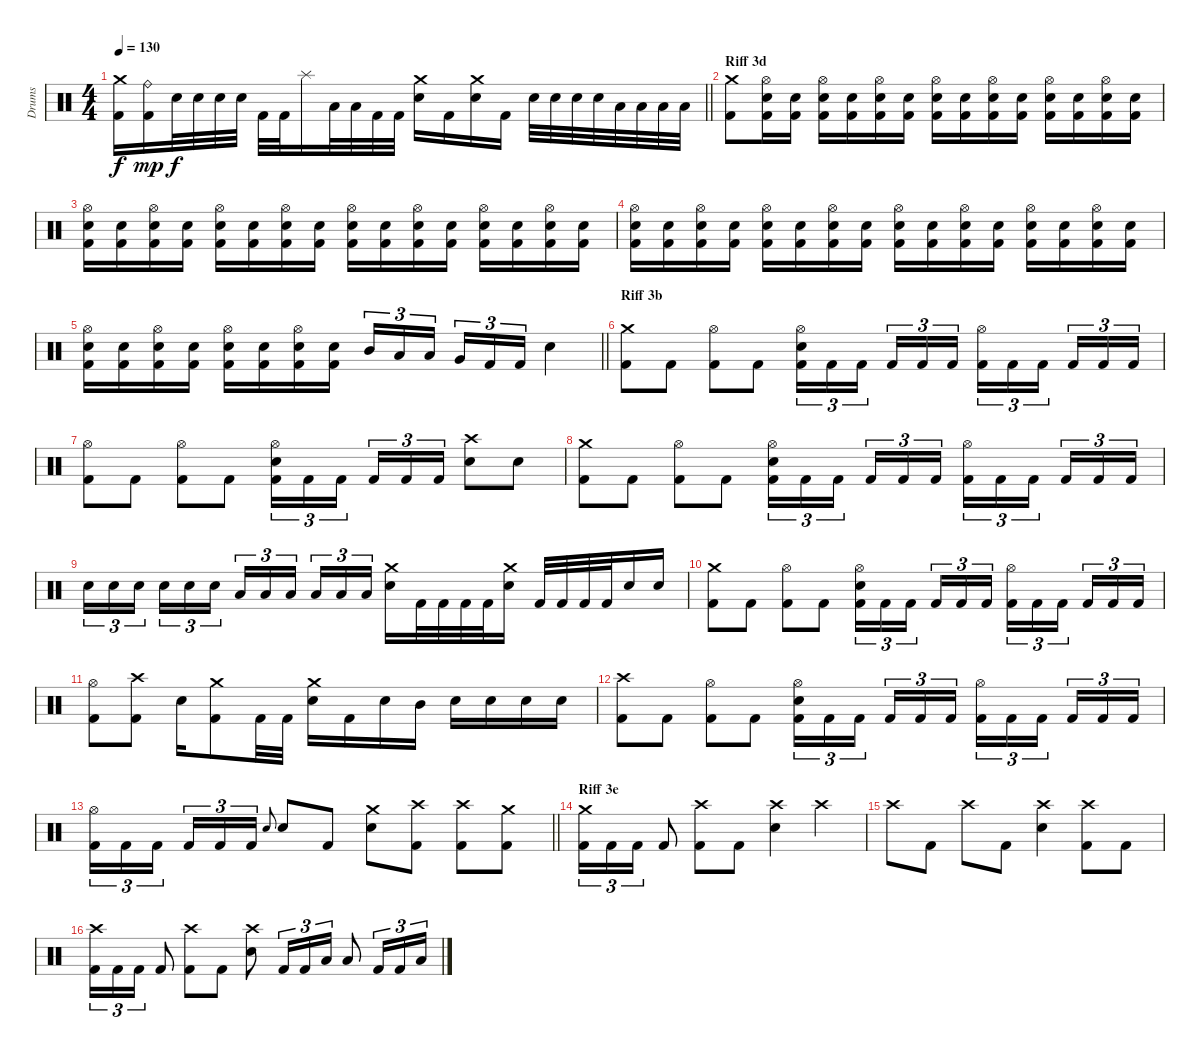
\track ("Drums" "Drums") {instrument percussion}
\staff {score}
\articulation defaults
\ts (4 4)
\tempo 130
\clef neutral
\barLineRight lightlight
\ks c
("Crash medium (hit)" "Kick (hit) 2").16{dy f} ("Ride (bell)" "Kick (hit) 2").16{dy mp} "Electric Snare (hit)".32{dy f} "Electric Snare (hit)".32 "Electric Snare (hit)".32 "Electric Snare (hit)".32 "Kick (hit) 2".32 "Kick (hit) 2".32 "Splash (hit)".16 "Low Tom (hit)".32 "Low Tom (hit)".32 "Kick (hit) 2".32 "Kick (hit) 2".32 ("Electric Snare (hit)" "Crash medium (hit)").16 "Kick (hit) 2".16 ("Electric Snare (hit)" "Crash medium (hit)").16 "Kick (hit) 2".16 "Electric Snare (hit)".32 "Electric Snare (hit)".32 "Electric Snare (hit)".32 "Electric Snare (hit)".32 "Low Tom (hit)".32 "Low Tom (hit)".32 "Low Tom (hit)".32 "Low Tom (hit)".32 |
\section ("" "Riff 3d")
("Kick (hit) 2" "Crash medium (hit)").8 ("Electric Snare (hit)" "Hi-Hat (open)" "Kick (hit) 2").16 ("Electric Snare (hit)" "Kick (hit) 2").16 ("Electric Snare (hit)" "Hi-Hat (open)" "Kick (hit) 2").16 ("Electric Snare (hit)" "Kick (hit) 2").16 ("Electric Snare (hit)" "Hi-Hat (open)" "Kick (hit) 2").16 ("Electric Snare (hit)" "Kick (hit) 2").16 ("Electric Snare (hit)" "Hi-Hat (open)" "Kick (hit) 2").16 ("Electric Snare (hit)" "Kick (hit) 2").16 ("Electric Snare (hit)" "Hi-Hat (open)" "Kick (hit) 2").16 ("Electric Snare (hit)" "Kick (hit) 2").16 ("Electric Snare (hit)" "Hi-Hat (open)" "Kick (hit) 2").16 ("Electric Snare (hit)" "Kick (hit) 2").16 ("Electric Snare (hit)" "Hi-Hat (open)" "Kick (hit) 2").16 ("Electric Snare (hit)" "Kick (hit) 2").16 |
("Electric Snare (hit)" "Hi-Hat (open)" "Kick (hit) 2").16 ("Electric Snare (hit)" "Kick (hit) 2").16 ("Electric Snare (hit)" "Hi-Hat (open)" "Kick (hit) 2").16 ("Electric Snare (hit)" "Kick (hit) 2").16 ("Electric Snare (hit)" "Hi-Hat (open)" "Kick (hit) 2").16 ("Electric Snare (hit)" "Kick (hit) 2").16 ("Electric Snare (hit)" "Hi-Hat (open)" "Kick (hit) 2").16 ("Electric Snare (hit)" "Kick (hit) 2").16 ("Electric Snare (hit)" "Hi-Hat (open)" "Kick (hit) 2").16 ("Electric Snare (hit)" "Kick (hit) 2").16 ("Electric Snare (hit)" "Hi-Hat (open)" "Kick (hit) 2").16 ("Electric Snare (hit)" "Kick (hit) 2").16 ("Electric Snare (hit)" "Hi-Hat (open)" "Kick (hit) 2").16 ("Electric Snare (hit)" "Kick (hit) 2").16 ("Electric Snare (hit)" "Hi-Hat (open)" "Kick (hit) 2").16 ("Electric Snare (hit)" "Kick (hit) 2").16 |
("Electric Snare (hit)" "Hi-Hat (open)" "Kick (hit) 2").16 ("Electric Snare (hit)" "Kick (hit) 2").16 ("Electric Snare (hit)" "Hi-Hat (open)" "Kick (hit) 2").16 ("Electric Snare (hit)" "Kick (hit) 2").16 ("Electric Snare (hit)" "Hi-Hat (open)" "Kick (hit) 2").16 ("Electric Snare (hit)" "Kick (hit) 2").16 ("Electric Snare (hit)" "Hi-Hat (open)" "Kick (hit) 2").16 ("Electric Snare (hit)" "Kick (hit) 2").16 ("Electric Snare (hit)" "Hi-Hat (open)" "Kick (hit) 2").16 ("Electric Snare (hit)" "Kick (hit) 2").16 ("Electric Snare (hit)" "Hi-Hat (open)" "Kick (hit) 2").16 ("Electric Snare (hit)" "Kick (hit) 2").16 ("Electric Snare (hit)" "Hi-Hat (open)" "Kick (hit) 2").16 ("Electric Snare (hit)" "Kick (hit) 2").16 ("Electric Snare (hit)" "Hi-Hat (open)" "Kick (hit) 2").16 ("Electric Snare (hit)" "Kick (hit) 2").16 |
\barLineRight lightlight
("Electric Snare (hit)" "Hi-Hat (open)" "Kick (hit) 2").16 ("Electric Snare (hit)" "Kick (hit) 2").16 ("Electric Snare (hit)" "Hi-Hat (open)" "Kick (hit) 2").16 ("Electric Snare (hit)" "Kick (hit) 2").16 ("Electric Snare (hit)" "Hi-Hat (open)" "Kick (hit) 2").16 ("Electric Snare (hit)" "Kick (hit) 2").16 ("Electric Snare (hit)" "Hi-Hat (open)" "Kick (hit) 2").16 ("Electric Snare (hit)" "Kick (hit) 2").16 "Mid Tom (hit)".16{tu (3 2)} "Low Tom (hit)".16{tu (3 2)} "Low Tom (hit)".16{tu (3 2) beam splitsecondary} "Very Low Tom (hit)".16{tu (3 2)} "Kick (hit) 2".16{tu (3 2)} "Kick (hit) 2".16{tu (3 2)} "Electric Snare (hit)".4 |
\section ("" "Riff 3b")
("Kick (hit) 2" "Crash medium (hit)").8 "Kick (hit) 2".8 ("Kick (hit) 2" "Hi-Hat (open)").8 "Kick (hit) 2".8 ("Kick (hit) 2" "Electric Snare (hit)" "Hi-Hat (open)").16{tu (3 2)} "Kick (hit) 2".16{tu (3 2)} "Kick (hit) 2".16{tu (3 2) beam splitsecondary} "Kick (hit) 2".16{tu (3 2)} "Kick (hit) 2".16{tu (3 2)} "Kick (hit) 2".16{tu (3 2)} ("Kick (hit) 2" "Hi-Hat (open)").16{tu (3 2)} "Kick (hit) 2".16{tu (3 2)} "Kick (hit) 2".16{tu (3 2) beam splitsecondary} "Kick (hit) 2".16{tu (3 2)} "Kick (hit) 2".16{tu (3 2)} "Kick (hit) 2".16{tu (3 2)} |
("Kick (hit) 2" "Hi-Hat (open)").8 "Kick (hit) 2".8 ("Kick (hit) 2" "Hi-Hat (open)").8 "Kick (hit) 2".8 ("Kick (hit) 2" "Electric Snare (hit)" "Hi-Hat (open)").16{tu (3 2)} "Kick (hit) 2".16{tu (3 2)} "Kick (hit) 2".16{tu (3 2) beam splitsecondary} "Kick (hit) 2".16{tu (3 2)} "Kick (hit) 2".16{tu (3 2)} "Kick (hit) 2".16{tu (3 2)} ("Electric Snare (hit)" "Crash high (hit)").8 "Electric Snare (hit)".8 |
("Kick (hit) 2" "Crash medium (hit)").8 "Kick (hit) 2".8 ("Kick (hit) 2" "Hi-Hat (open)").8 "Kick (hit) 2".8 ("Kick (hit) 2" "Electric Snare (hit)" "Hi-Hat (open)").16{tu (3 2)} "Kick (hit) 2".16{tu (3 2)} "Kick (hit) 2".16{tu (3 2) beam splitsecondary} "Kick (hit) 2".16{tu (3 2)} "Kick (hit) 2".16{tu (3 2)} "Kick (hit) 2".16{tu (3 2)} ("Kick (hit) 2" "Hi-Hat (open)").16{tu (3 2)} "Kick (hit) 2".16{tu (3 2)} "Kick (hit) 2".16{tu (3 2) beam splitsecondary} "Kick (hit) 2".16{tu (3 2)} "Kick (hit) 2".16{tu (3 2)} "Kick (hit) 2".16{tu (3 2)} |
"Electric Snare (hit)".16{tu (3 2)} "Electric Snare (hit)".16{tu (3 2)} "Electric Snare (hit)".16{tu (3 2) beam splitsecondary} "Electric Snare (hit)".16{tu (3 2)} "Electric Snare (hit)".16{tu (3 2)} "Electric Snare (hit)".16{tu (3 2)} "Low Tom (hit)".16{tu (3 2)} "Low Tom (hit)".16{tu (3 2)} "Low Tom (hit)".16{tu (3 2) beam splitsecondary} "Low Tom (hit)".16{tu (3 2)} "Low Tom (hit)".16{tu (3 2)} "Low Tom (hit)".16{tu (3 2)} ("Electric Snare (hit)" "Crash medium (hit)").16 "Kick (hit) 2".32 "Kick (hit) 2".32 "Kick (hit) 2".32 "Kick (hit) 2".32 ("Electric Snare (hit)" "Crash medium (hit)").16 "Kick (hit) 2".32 "Kick (hit) 2".32 "Kick (hit) 2".32 "Kick (hit) 2".32 "Electric Snare (hit)".16 "Electric Snare (hit)".16 |
("Kick (hit) 2" "Crash medium (hit)").8 "Kick (hit) 2".8 ("Kick (hit) 2" "Hi-Hat (open)").8 "Kick (hit) 2".8 ("Kick (hit) 2" "Electric Snare (hit)" "Hi-Hat (open)").16{tu (3 2)} "Kick (hit) 2".16{tu (3 2)} "Kick (hit) 2".16{tu (3 2) beam splitsecondary} "Kick (hit) 2".16{tu (3 2)} "Kick (hit) 2".16{tu (3 2)} "Kick (hit) 2".16{tu (3 2)} ("Kick (hit) 2" "Hi-Hat (open)").16{tu (3 2)} "Kick (hit) 2".16{tu (3 2)} "Kick (hit) 2".16{tu (3 2) beam splitsecondary} "Kick (hit) 2".16{tu (3 2)} "Kick (hit) 2".16{tu (3 2)} "Kick (hit) 2".16{tu (3 2)} |
("Kick (hit) 2" "Hi-Hat (open)").8 ("Crash high (hit)" "Kick (hit) 2").8 "Electric Snare (hit)".16 ("Kick (hit) 2" "Crash medium (hit)").8 "Kick (hit) 2".32 "Kick (hit) 2".32 ("Electric Snare (hit)" "Crash medium (hit)").16 "Kick (hit) 2".16 "Electric Snare (hit)".16 "Mid Tom (hit)".16 "Electric Snare (hit)".16 "Electric Snare (hit)".16 "Electric Snare (hit)".16 "Electric Snare (hit)".16 |
("Kick (hit) 2" "Crash high (hit)").8 "Kick (hit) 2".8 ("Kick (hit) 2" "Hi-Hat (open)").8 "Kick (hit) 2".8 ("Kick (hit) 2" "Electric Snare (hit)" "Hi-Hat (open)").16{tu (3 2)} "Kick (hit) 2".16{tu (3 2)} "Kick (hit) 2".16{tu (3 2) beam splitsecondary} "Kick (hit) 2".16{tu (3 2)} "Kick (hit) 2".16{tu (3 2)} "Kick (hit) 2".16{tu (3 2)} ("Kick (hit) 2" "Hi-Hat (open)").16{tu (3 2)} "Kick (hit) 2".16{tu (3 2)} "Kick (hit) 2".16{tu (3 2) beam splitsecondary} "Kick (hit) 2".16{tu (3 2)} "Kick (hit) 2".16{tu (3 2)} "Kick (hit) 2".16{tu (3 2)} |
\barLineRight lightlight
("Kick (hit) 2" "Hi-Hat (open)").16{tu (3 2)} "Kick (hit) 2".16{tu (3 2)} "Kick (hit) 2".16{tu (3 2) beam splitsecondary} "Kick (hit) 2".16{tu (3 2)} "Kick (hit) 2".16{tu (3 2)} "Kick (hit) 2".16{tu (3 2)} "Electric Snare (hit)".8{gr onbeat} "Electric Snare (hit)".8 "Kick (hit) 2".8 ("Electric Snare (hit)" "Crash medium (hit)").8 ("Kick (hit) 2" "Crash high (hit)").8 ("Kick (hit) 2" "Crash high (hit)").8 ("Kick (hit) 2" "Crash medium (hit)").8 |
\section ("" "Riff 3e")
("Crash medium (hit)" "Kick (hit) 2").16{tu (3 2)} "Kick (hit) 2".16{tu (3 2)} "Kick (hit) 2".16{tu (3 2)} "Kick (hit) 2".8 ("Crash high (hit)" "Kick (hit) 2").8 "Kick (hit) 2".8 ("Electric Snare (hit)" "Crash high (hit)").4 "Crash high (hit)".4 |
"Crash high (hit)".8 "Kick (hit) 2".8 "Crash high (hit)".8 "Kick (hit) 2".8 ("Electric Snare (hit)" "Crash high (hit)").4 ("Crash high (hit)" "Kick (hit) 2").8 "Kick (hit) 2".8 |
("Crash high (hit)" "Kick (hit) 2").16{tu (3 2)} "Kick (hit) 2".16{tu (3 2)} "Kick (hit) 2".16{tu (3 2)} "Kick (hit) 2".8 ("Crash high (hit)" "Kick (hit) 2").8 "Kick (hit) 2".8 ("Electric Snare (hit)" "Crash high (hit)").8 "Kick (hit) 2".16{tu (3 2)} "Kick (hit) 2".16{tu (3 2)} "Low Floor Tom (hit)".16{tu (3 2)} "Low Floor Tom (hit)".8 "Kick (hit) 2".16{tu (3 2)} "Kick (hit) 2".16{tu (3 2)} "Low Floor Tom (hit)".16{tu (3 2)}
